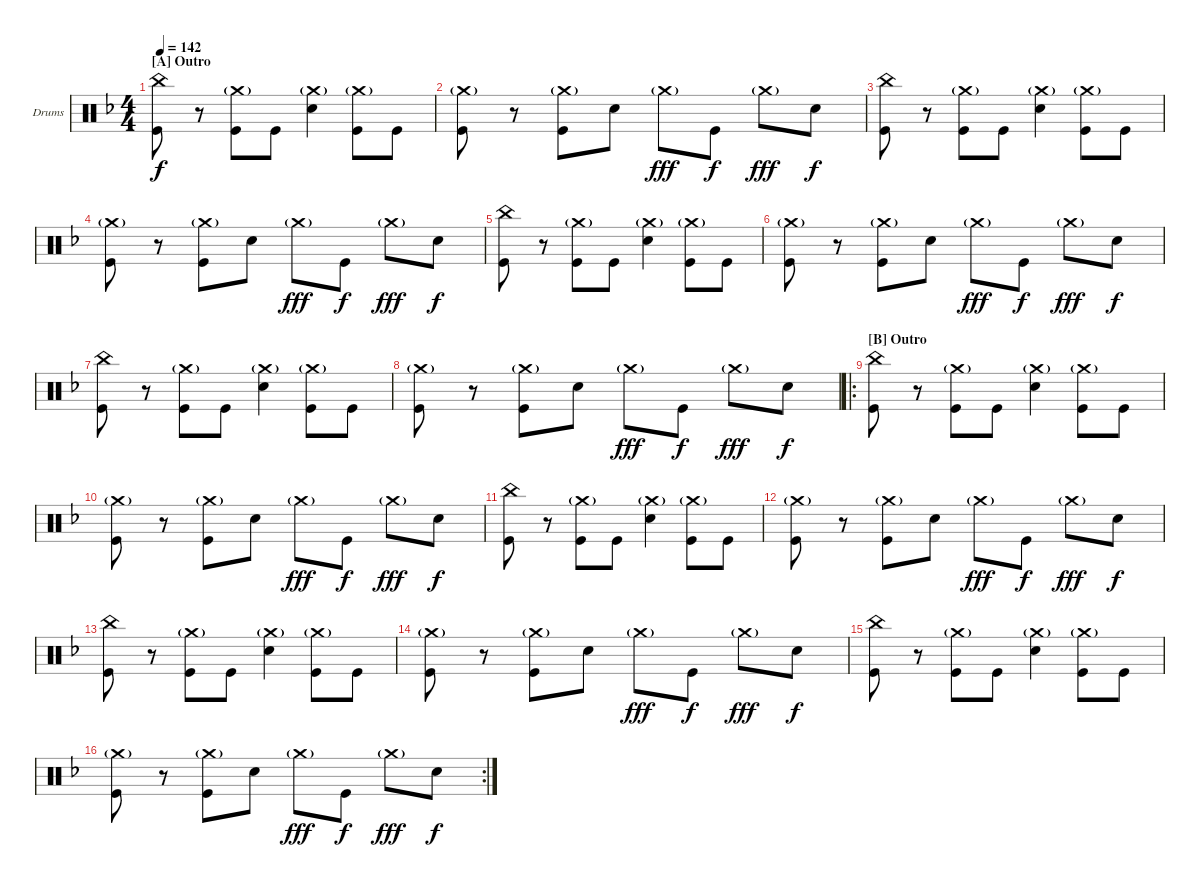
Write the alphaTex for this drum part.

\defaultSystemsLayout 4
\bracketExtendMode groupsimilarinstruments
\firstSystemTrackNameOrientation horizontal
\otherSystemsTrackNameOrientation horizontal
\track ("Mark" "Drums") {instrument percussion}
\staff {score}
\articulation defaults
\ts (4 4)
\section ("A" "Outro")
\tempo 142
\clef neutral
\scale
0.333333
\ks f
("China (hit)" "Kick (hit)").8{dy f} r.8 ("Crash medium (hit)"{g} "Kick (hit)").8 "Kick (hit)".8 ("Crash medium (hit)"{g} "Snare (hit) 2").4 ("Crash medium (hit)"{g} "Kick (hit)").8 "Kick (hit)".8 |
\scale
0.333333 ("Crash medium (hit)"{g} "Kick (hit)").8 r.8 ("Crash medium (hit)"{g} "Kick (hit)").8 "Snare (hit) 2".8 "Crash medium (hit)"{g}.8{dy fff} "Kick (hit)".8{dy f} "Crash medium (hit)"{g}.8{dy fff} "Snare (hit) 2".8{dy f} |
\scale
0.333333 ("China (hit)" "Kick (hit)").8 r.8 ("Crash medium (hit)"{g} "Kick (hit)").8 "Kick (hit)".8 ("Crash medium (hit)"{g} "Snare (hit) 2").4 ("Crash medium (hit)"{g} "Kick (hit)").8 "Kick (hit)".8 |
\scale
0.333333 ("Crash medium (hit)"{g} "Kick (hit)").8 r.8 ("Crash medium (hit)"{g} "Kick (hit)").8 "Snare (hit) 2".8 "Crash medium (hit)"{g}.8{dy fff} "Kick (hit)".8{dy f} "Crash medium (hit)"{g}.8{dy fff} "Snare (hit) 2".8{dy f} |
\scale
0.333333 ("China (hit)" "Kick (hit)").8 r.8 ("Crash medium (hit)"{g} "Kick (hit)").8 "Kick (hit)".8 ("Crash medium (hit)"{g} "Snare (hit) 2").4 ("Crash medium (hit)"{g} "Kick (hit)").8 "Kick (hit)".8 |
\scale
0.333333 ("Crash medium (hit)"{g} "Kick (hit)").8 r.8 ("Crash medium (hit)"{g} "Kick (hit)").8 "Snare (hit) 2".8 "Crash medium (hit)"{g}.8{dy fff} "Kick (hit)".8{dy f} "Crash medium (hit)"{g}.8{dy fff} "Snare (hit) 2".8{dy f} |
\scale
0.311111 ("China (hit)" "Kick (hit)").8 r.8 ("Crash medium (hit)"{g} "Kick (hit)").8 "Kick (hit)".8 ("Crash medium (hit)"{g} "Snare (hit) 2").4 ("Crash medium (hit)"{g} "Kick (hit)").8 "Kick (hit)".8 |
\scale
0.311111 ("Crash medium (hit)"{g} "Kick (hit)").8 r.8 ("Crash medium (hit)"{g} "Kick (hit)").8 "Snare (hit) 2".8 "Crash medium (hit)"{g}.8{dy fff} "Kick (hit)".8{dy f} "Crash medium (hit)"{g}.8{dy fff} "Snare (hit) 2".8{dy f} |
\ro
\section ("B" "Outro")
\scale
0.377778 ("China (hit)" "Kick (hit)").8 r.8 ("Crash medium (hit)"{g} "Kick (hit)").8 "Kick (hit)".8 ("Crash medium (hit)"{g} "Snare (hit) 2").4 ("Crash medium (hit)"{g} "Kick (hit)").8 "Kick (hit)".8 |
\scale
0.333333 ("Crash medium (hit)"{g} "Kick (hit)").8 r.8 ("Crash medium (hit)"{g} "Kick (hit)").8 "Snare (hit) 2".8 "Crash medium (hit)"{g}.8{dy fff} "Kick (hit)".8{dy f} "Crash medium (hit)"{g}.8{dy fff} "Snare (hit) 2".8{dy f} |
\scale
0.333333 ("China (hit)" "Kick (hit)").8 r.8 ("Crash medium (hit)"{g} "Kick (hit)").8 "Kick (hit)".8 ("Crash medium (hit)"{g} "Snare (hit) 2").4 ("Crash medium (hit)"{g} "Kick (hit)").8 "Kick (hit)".8 |
\scale
0.333333 ("Crash medium (hit)"{g} "Kick (hit)").8 r.8 ("Crash medium (hit)"{g} "Kick (hit)").8 "Snare (hit) 2".8 "Crash medium (hit)"{g}.8{dy fff} "Kick (hit)".8{dy f} "Crash medium (hit)"{g}.8{dy fff} "Snare (hit) 2".8{dy f} |
\scale
0.333333 ("China (hit)" "Kick (hit)").8 r.8 ("Crash medium (hit)"{g} "Kick (hit)").8 "Kick (hit)".8 ("Crash medium (hit)"{g} "Snare (hit) 2").4 ("Crash medium (hit)"{g} "Kick (hit)").8 "Kick (hit)".8 |
\scale
0.333333 ("Crash medium (hit)"{g} "Kick (hit)").8 r.8 ("Crash medium (hit)"{g} "Kick (hit)").8 "Snare (hit) 2".8 "Crash medium (hit)"{g}.8{dy fff} "Kick (hit)".8{dy f} "Crash medium (hit)"{g}.8{dy fff} "Snare (hit) 2".8{dy f} |
\scale
0.333333 ("China (hit)" "Kick (hit)").8 r.8 ("Crash medium (hit)"{g} "Kick (hit)").8 "Kick (hit)".8 ("Crash medium (hit)"{g} "Snare (hit) 2").4 ("Crash medium (hit)"{g} "Kick (hit)").8 "Kick (hit)".8 |
\rc 2
("Crash medium (hit)"{g} "Kick (hit)").8 r.8 ("Crash medium (hit)"{g} "Kick (hit)").8 "Snare (hit) 2".8 "Crash medium (hit)"{g}.8{dy fff} "Kick (hit)".8{dy f} "Crash medium (hit)"{g}.8{dy fff} "Snare (hit) 2".8{dy f}
